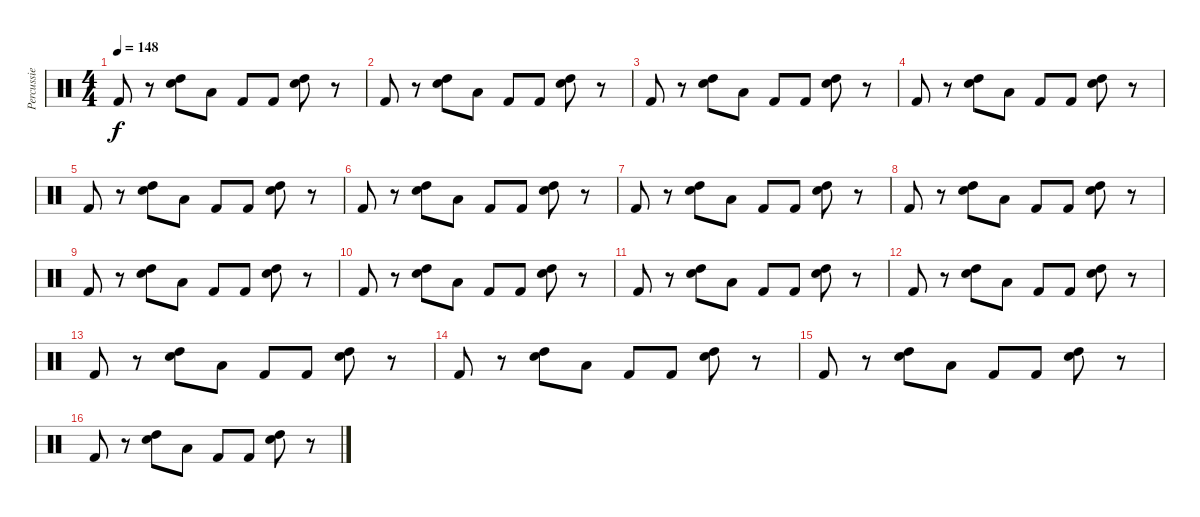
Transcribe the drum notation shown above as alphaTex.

\track ("Percussie" "Percussie") {instrument percussion}
\staff {score}
\articulation defaults
\ts (4 4)
\tempo 148
\clef neutral
\ks c "Kick (hit) 2".8{dy f}
r.8 ("Electric Snare (hit)" "High Tom (hit)").8 "Low Tom (hit)".8 "Kick (hit) 2".8 "Kick (hit) 2".8 ("Electric Snare (hit)" "High Tom (hit)").8 r.8 |
"Kick (hit) 2".8 r.8 ("Electric Snare (hit)" "High Tom (hit)").8 "Low Tom (hit)".8 "Kick (hit) 2".8 "Kick (hit) 2".8 ("Electric Snare (hit)" "High Tom (hit)").8 r.8 |
"Kick (hit) 2".8 r.8 ("Electric Snare (hit)" "High Tom (hit)").8 "Low Tom (hit)".8 "Kick (hit) 2".8 "Kick (hit) 2".8 ("Electric Snare (hit)" "High Tom (hit)").8 r.8 |
"Kick (hit) 2".8 r.8 ("Electric Snare (hit)" "High Tom (hit)").8 "Low Tom (hit)".8 "Kick (hit) 2".8 "Kick (hit) 2".8 ("Electric Snare (hit)" "High Tom (hit)").8 r.8 |
"Kick (hit) 2".8 r.8 ("Electric Snare (hit)" "High Tom (hit)").8 "Low Tom (hit)".8 "Kick (hit) 2".8 "Kick (hit) 2".8 ("Electric Snare (hit)" "High Tom (hit)").8 r.8 |
"Kick (hit) 2".8 r.8 ("Electric Snare (hit)" "High Tom (hit)").8 "Low Tom (hit)".8 "Kick (hit) 2".8 "Kick (hit) 2".8 ("Electric Snare (hit)" "High Tom (hit)").8 r.8 |
"Kick (hit) 2".8 r.8 ("Electric Snare (hit)" "High Tom (hit)").8 "Low Tom (hit)".8 "Kick (hit) 2".8 "Kick (hit) 2".8 ("Electric Snare (hit)" "High Tom (hit)").8 r.8 |
"Kick (hit) 2".8 r.8 ("Electric Snare (hit)" "High Tom (hit)").8 "Low Tom (hit)".8 "Kick (hit) 2".8 "Kick (hit) 2".8 ("Electric Snare (hit)" "High Tom (hit)").8 r.8 |
"Kick (hit) 2".8 r.8 ("Electric Snare (hit)" "High Tom (hit)").8 "Low Tom (hit)".8 "Kick (hit) 2".8 "Kick (hit) 2".8 ("Electric Snare (hit)" "High Tom (hit)").8 r.8 |
"Kick (hit) 2".8 r.8 ("Electric Snare (hit)" "High Tom (hit)").8 "Low Tom (hit)".8 "Kick (hit) 2".8 "Kick (hit) 2".8 ("Electric Snare (hit)" "High Tom (hit)").8 r.8 |
"Kick (hit) 2".8 r.8 ("Electric Snare (hit)" "High Tom (hit)").8 "Low Tom (hit)".8 "Kick (hit) 2".8 "Kick (hit) 2".8 ("Electric Snare (hit)" "High Tom (hit)").8 r.8 |
"Kick (hit) 2".8 r.8 ("Electric Snare (hit)" "High Tom (hit)").8 "Low Tom (hit)".8 "Kick (hit) 2".8 "Kick (hit) 2".8 ("Electric Snare (hit)" "High Tom (hit)").8 r.8 |
"Kick (hit) 2".8 r.8 ("Electric Snare (hit)" "High Tom (hit)").8 "Low Tom (hit)".8 "Kick (hit) 2".8 "Kick (hit) 2".8 ("Electric Snare (hit)" "High Tom (hit)").8 r.8 |
"Kick (hit) 2".8 r.8 ("Electric Snare (hit)" "High Tom (hit)").8 "Low Tom (hit)".8 "Kick (hit) 2".8 "Kick (hit) 2".8 ("Electric Snare (hit)" "High Tom (hit)").8 r.8 |
"Kick (hit) 2".8 r.8 ("Electric Snare (hit)" "High Tom (hit)").8 "Low Tom (hit)".8 "Kick (hit) 2".8 "Kick (hit) 2".8 ("Electric Snare (hit)" "High Tom (hit)").8 r.8 |
"Kick (hit) 2".8 r.8 ("Electric Snare (hit)" "High Tom (hit)").8 "Low Tom (hit)".8 "Kick (hit) 2".8 "Kick (hit) 2".8 ("Electric Snare (hit)" "High Tom (hit)").8 r.8
